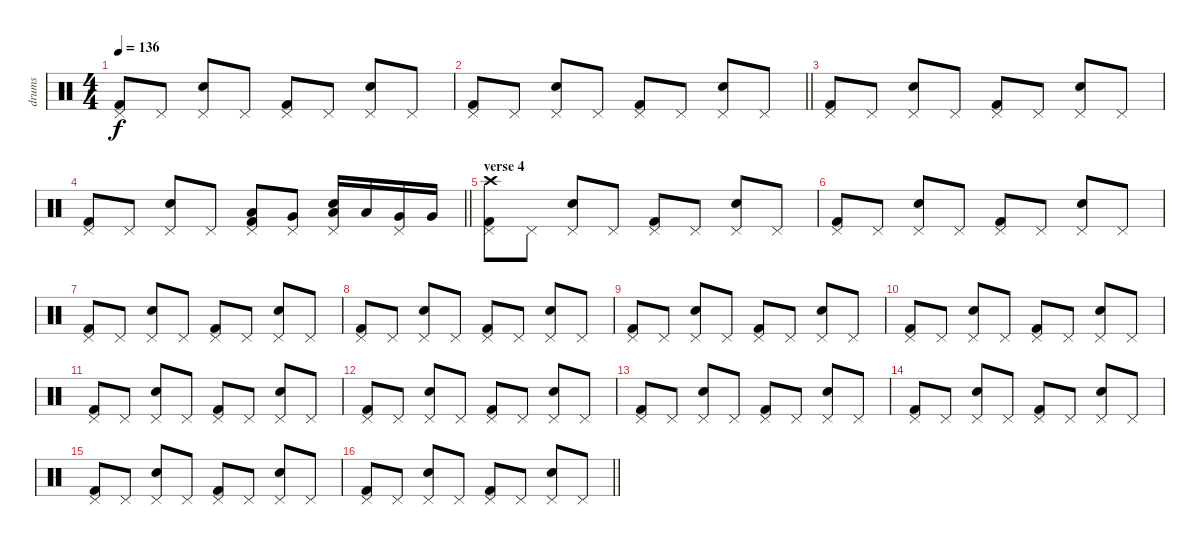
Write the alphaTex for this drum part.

\track ("drums" "drums") {instrument percussion}
\staff {score}
\articulation defaults
\ts (4 4)
\tempo 136
\clef neutral
\ks c
("Kick (hit) 2" "Pedal Hi-Hat (hit)").8{dy f} "Pedal Hi-Hat (hit)".8 ("Electric Snare (hit)" "Pedal Hi-Hat (hit)").8 "Pedal Hi-Hat (hit)".8 ("Kick (hit) 2" "Pedal Hi-Hat (hit)").8 "Pedal Hi-Hat (hit)".8 ("Electric Snare (hit)" "Pedal Hi-Hat (hit)").8 "Pedal Hi-Hat (hit)".8 |
\barLineRight lightlight
("Kick (hit) 2" "Pedal Hi-Hat (hit)").8 "Pedal Hi-Hat (hit)".8 ("Electric Snare (hit)" "Pedal Hi-Hat (hit)").8 "Pedal Hi-Hat (hit)".8 ("Kick (hit) 2" "Pedal Hi-Hat (hit)").8 "Pedal Hi-Hat (hit)".8 ("Electric Snare (hit)" "Pedal Hi-Hat (hit)").8 "Pedal Hi-Hat (hit)".8 |
("Kick (hit) 2" "Pedal Hi-Hat (hit)").8 "Pedal Hi-Hat (hit)".8 ("Electric Snare (hit)" "Pedal Hi-Hat (hit)").8 "Pedal Hi-Hat (hit)".8 ("Kick (hit) 2" "Pedal Hi-Hat (hit)").8 "Pedal Hi-Hat (hit)".8 ("Electric Snare (hit)" "Pedal Hi-Hat (hit)").8 "Pedal Hi-Hat (hit)".8 |
\barLineRight lightlight
("Kick (hit) 2" "Pedal Hi-Hat (hit)").8 "Pedal Hi-Hat (hit)".8 ("Electric Snare (hit)" "Pedal Hi-Hat (hit)").8 "Pedal Hi-Hat (hit)".8 ("Kick (hit) 2" "Pedal Hi-Hat (hit)" "Low Tom (hit)").8 ("Pedal Hi-Hat (hit)" "Very Low Tom (hit)").8 ("Electric Snare (hit)" "Pedal Hi-Hat (hit)" "Low Tom (hit)").16 "Low Tom (hit)".16 ("Pedal Hi-Hat (hit)" "Very Low Tom (hit)").16 "Very Low Tom (hit)".16 |
\section ("" "verse 4")
("Kick (hit) 2" "Pedal Hi-Hat (hit)" "Crash high (hit)").8 "Pedal Hi-Hat (hit)".8 ("Electric Snare (hit)" "Pedal Hi-Hat (hit)").8 "Pedal Hi-Hat (hit)".8 ("Kick (hit) 2" "Pedal Hi-Hat (hit)").8 "Pedal Hi-Hat (hit)".8 ("Electric Snare (hit)" "Pedal Hi-Hat (hit)").8 "Pedal Hi-Hat (hit)".8 |
("Kick (hit) 2" "Pedal Hi-Hat (hit)").8 "Pedal Hi-Hat (hit)".8 ("Electric Snare (hit)" "Pedal Hi-Hat (hit)").8 "Pedal Hi-Hat (hit)".8 ("Kick (hit) 2" "Pedal Hi-Hat (hit)").8 "Pedal Hi-Hat (hit)".8 ("Electric Snare (hit)" "Pedal Hi-Hat (hit)").8 "Pedal Hi-Hat (hit)".8 |
("Kick (hit) 2" "Pedal Hi-Hat (hit)").8 "Pedal Hi-Hat (hit)".8 ("Electric Snare (hit)" "Pedal Hi-Hat (hit)").8 "Pedal Hi-Hat (hit)".8 ("Kick (hit) 2" "Pedal Hi-Hat (hit)").8 "Pedal Hi-Hat (hit)".8 ("Electric Snare (hit)" "Pedal Hi-Hat (hit)").8 "Pedal Hi-Hat (hit)".8 |
("Kick (hit) 2" "Pedal Hi-Hat (hit)").8 "Pedal Hi-Hat (hit)".8 ("Electric Snare (hit)" "Pedal Hi-Hat (hit)").8 "Pedal Hi-Hat (hit)".8 ("Kick (hit) 2" "Pedal Hi-Hat (hit)").8 "Pedal Hi-Hat (hit)".8 ("Electric Snare (hit)" "Pedal Hi-Hat (hit)").8 "Pedal Hi-Hat (hit)".8 |
("Kick (hit) 2" "Pedal Hi-Hat (hit)").8 "Pedal Hi-Hat (hit)".8 ("Electric Snare (hit)" "Pedal Hi-Hat (hit)").8 "Pedal Hi-Hat (hit)".8 ("Kick (hit) 2" "Pedal Hi-Hat (hit)").8 "Pedal Hi-Hat (hit)".8 ("Electric Snare (hit)" "Pedal Hi-Hat (hit)").8 "Pedal Hi-Hat (hit)".8 |
("Kick (hit) 2" "Pedal Hi-Hat (hit)").8 "Pedal Hi-Hat (hit)".8 ("Electric Snare (hit)" "Pedal Hi-Hat (hit)").8 "Pedal Hi-Hat (hit)".8 ("Kick (hit) 2" "Pedal Hi-Hat (hit)").8 "Pedal Hi-Hat (hit)".8 ("Electric Snare (hit)" "Pedal Hi-Hat (hit)").8 "Pedal Hi-Hat (hit)".8 |
("Kick (hit) 2" "Pedal Hi-Hat (hit)").8 "Pedal Hi-Hat (hit)".8 ("Electric Snare (hit)" "Pedal Hi-Hat (hit)").8 "Pedal Hi-Hat (hit)".8 ("Kick (hit) 2" "Pedal Hi-Hat (hit)").8 "Pedal Hi-Hat (hit)".8 ("Electric Snare (hit)" "Pedal Hi-Hat (hit)").8 "Pedal Hi-Hat (hit)".8 |
("Kick (hit) 2" "Pedal Hi-Hat (hit)").8 "Pedal Hi-Hat (hit)".8 ("Electric Snare (hit)" "Pedal Hi-Hat (hit)").8 "Pedal Hi-Hat (hit)".8 ("Kick (hit) 2" "Pedal Hi-Hat (hit)").8 "Pedal Hi-Hat (hit)".8 ("Electric Snare (hit)" "Pedal Hi-Hat (hit)").8 "Pedal Hi-Hat (hit)".8 |
("Kick (hit) 2" "Pedal Hi-Hat (hit)").8 "Pedal Hi-Hat (hit)".8 ("Electric Snare (hit)" "Pedal Hi-Hat (hit)").8 "Pedal Hi-Hat (hit)".8 ("Kick (hit) 2" "Pedal Hi-Hat (hit)").8 "Pedal Hi-Hat (hit)".8 ("Electric Snare (hit)" "Pedal Hi-Hat (hit)").8 "Pedal Hi-Hat (hit)".8 |
("Kick (hit) 2" "Pedal Hi-Hat (hit)").8 "Pedal Hi-Hat (hit)".8 ("Electric Snare (hit)" "Pedal Hi-Hat (hit)").8 "Pedal Hi-Hat (hit)".8 ("Kick (hit) 2" "Pedal Hi-Hat (hit)").8 "Pedal Hi-Hat (hit)".8 ("Electric Snare (hit)" "Pedal Hi-Hat (hit)").8 "Pedal Hi-Hat (hit)".8 |
("Kick (hit) 2" "Pedal Hi-Hat (hit)").8 "Pedal Hi-Hat (hit)".8 ("Electric Snare (hit)" "Pedal Hi-Hat (hit)").8 "Pedal Hi-Hat (hit)".8 ("Kick (hit) 2" "Pedal Hi-Hat (hit)").8 "Pedal Hi-Hat (hit)".8 ("Electric Snare (hit)" "Pedal Hi-Hat (hit)").8 "Pedal Hi-Hat (hit)".8 |
\barLineRight lightlight
("Kick (hit) 2" "Pedal Hi-Hat (hit)").8 "Pedal Hi-Hat (hit)".8 ("Electric Snare (hit)" "Pedal Hi-Hat (hit)").8 "Pedal Hi-Hat (hit)".8 ("Kick (hit) 2" "Pedal Hi-Hat (hit)").8 "Pedal Hi-Hat (hit)".8 ("Electric Snare (hit)" "Pedal Hi-Hat (hit)").8 "Pedal Hi-Hat (hit)".8
